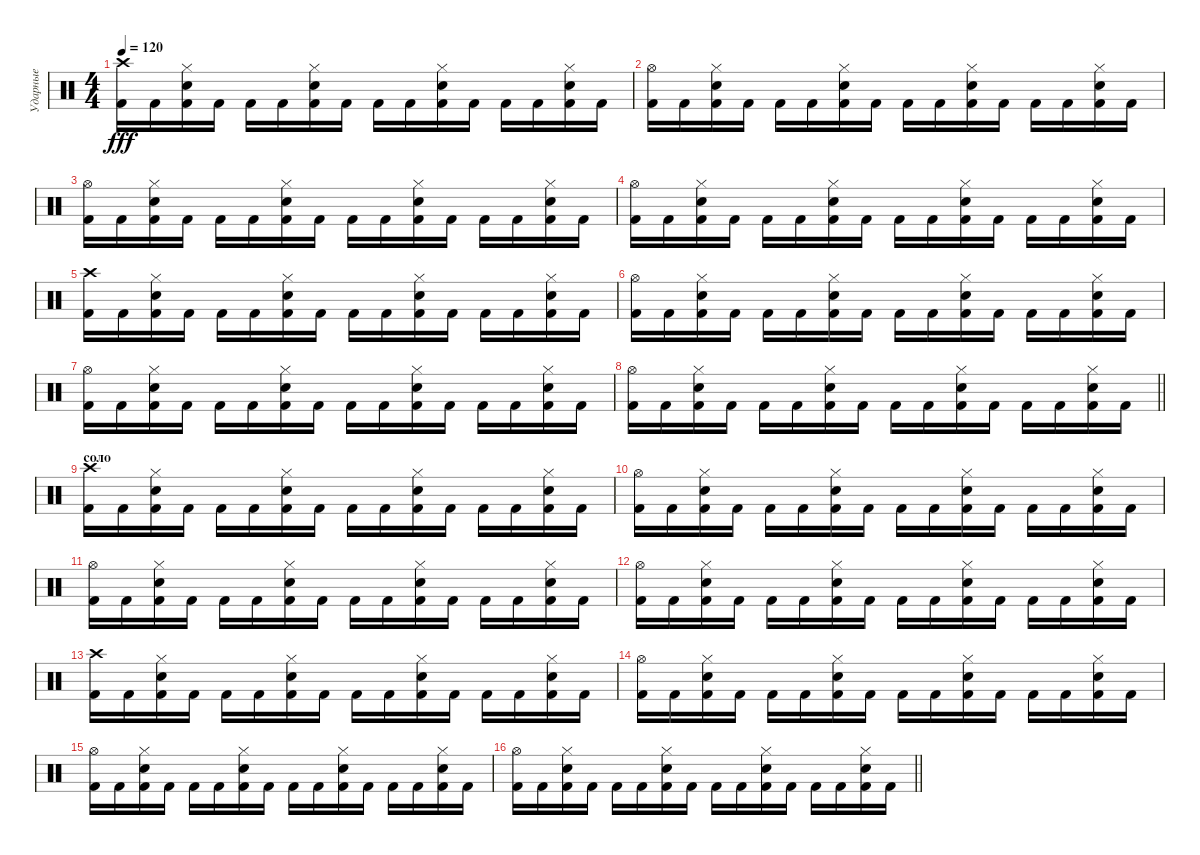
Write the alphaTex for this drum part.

\track ("Ударные" "Ударные") {instrument percussion}
\staff {score}
\articulation defaults
\ts (4 4)
\tempo 120
\clef neutral
\ks c
("Crash high (hit)" "Kick (hit) 2").16{dy fff} "Kick (hit) 2".16 ("Snare (hit) 2" "Hi-Hat (closed)" "Kick (hit) 2").16 "Kick (hit) 2".16 "Kick (hit) 2".16 "Kick (hit) 2".16 ("Snare (hit) 2" "Hi-Hat (closed)" "Kick (hit) 2").16 "Kick (hit) 2".16 "Kick (hit) 2".16 "Kick (hit) 2".16 ("Snare (hit) 2" "Hi-Hat (closed)" "Kick (hit) 2").16 "Kick (hit) 2".16 "Kick (hit) 2".16 "Kick (hit) 2".16 ("Snare (hit) 2" "Hi-Hat (closed)" "Kick (hit) 2").16 "Kick (hit) 2".16 |
("Hi-Hat (open)" "Kick (hit) 2").16 "Kick (hit) 2".16 ("Snare (hit) 2" "Hi-Hat (closed)" "Kick (hit) 2").16 "Kick (hit) 2".16 "Kick (hit) 2".16 "Kick (hit) 2".16 ("Snare (hit) 2" "Hi-Hat (closed)" "Kick (hit) 2").16 "Kick (hit) 2".16 "Kick (hit) 2".16 "Kick (hit) 2".16 ("Snare (hit) 2" "Hi-Hat (closed)" "Kick (hit) 2").16 "Kick (hit) 2".16 "Kick (hit) 2".16 "Kick (hit) 2".16 ("Snare (hit) 2" "Hi-Hat (closed)" "Kick (hit) 2").16 "Kick (hit) 2".16 |
("Hi-Hat (open)" "Kick (hit) 2").16 "Kick (hit) 2".16 ("Snare (hit) 2" "Hi-Hat (closed)" "Kick (hit) 2").16 "Kick (hit) 2".16 "Kick (hit) 2".16 "Kick (hit) 2".16 ("Snare (hit) 2" "Hi-Hat (closed)" "Kick (hit) 2").16 "Kick (hit) 2".16 "Kick (hit) 2".16 "Kick (hit) 2".16 ("Snare (hit) 2" "Hi-Hat (closed)" "Kick (hit) 2").16 "Kick (hit) 2".16 "Kick (hit) 2".16 "Kick (hit) 2".16 ("Snare (hit) 2" "Hi-Hat (closed)" "Kick (hit) 2").16 "Kick (hit) 2".16 |
("Hi-Hat (open)" "Kick (hit) 2").16 "Kick (hit) 2".16 ("Snare (hit) 2" "Hi-Hat (closed)" "Kick (hit) 2").16 "Kick (hit) 2".16 "Kick (hit) 2".16 "Kick (hit) 2".16 ("Snare (hit) 2" "Hi-Hat (closed)" "Kick (hit) 2").16 "Kick (hit) 2".16 "Kick (hit) 2".16 "Kick (hit) 2".16 ("Snare (hit) 2" "Hi-Hat (closed)" "Kick (hit) 2").16 "Kick (hit) 2".16 "Kick (hit) 2".16 "Kick (hit) 2".16 ("Snare (hit) 2" "Hi-Hat (closed)" "Kick (hit) 2").16 "Kick (hit) 2".16 |
("Crash high (hit)" "Kick (hit) 2").16 "Kick (hit) 2".16 ("Snare (hit) 2" "Hi-Hat (closed)" "Kick (hit) 2").16 "Kick (hit) 2".16 "Kick (hit) 2".16 "Kick (hit) 2".16 ("Snare (hit) 2" "Hi-Hat (closed)" "Kick (hit) 2").16 "Kick (hit) 2".16 "Kick (hit) 2".16 "Kick (hit) 2".16 ("Snare (hit) 2" "Hi-Hat (closed)" "Kick (hit) 2").16 "Kick (hit) 2".16 "Kick (hit) 2".16 "Kick (hit) 2".16 ("Snare (hit) 2" "Hi-Hat (closed)" "Kick (hit) 2").16 "Kick (hit) 2".16 |
("Hi-Hat (open)" "Kick (hit) 2").16 "Kick (hit) 2".16 ("Snare (hit) 2" "Hi-Hat (closed)" "Kick (hit) 2").16 "Kick (hit) 2".16 "Kick (hit) 2".16 "Kick (hit) 2".16 ("Snare (hit) 2" "Hi-Hat (closed)" "Kick (hit) 2").16 "Kick (hit) 2".16 "Kick (hit) 2".16 "Kick (hit) 2".16 ("Snare (hit) 2" "Hi-Hat (closed)" "Kick (hit) 2").16 "Kick (hit) 2".16 "Kick (hit) 2".16 "Kick (hit) 2".16 ("Snare (hit) 2" "Hi-Hat (closed)" "Kick (hit) 2").16 "Kick (hit) 2".16 |
("Hi-Hat (open)" "Kick (hit) 2").16 "Kick (hit) 2".16 ("Snare (hit) 2" "Hi-Hat (closed)" "Kick (hit) 2").16 "Kick (hit) 2".16 "Kick (hit) 2".16 "Kick (hit) 2".16 ("Snare (hit) 2" "Hi-Hat (closed)" "Kick (hit) 2").16 "Kick (hit) 2".16 "Kick (hit) 2".16 "Kick (hit) 2".16 ("Snare (hit) 2" "Hi-Hat (closed)" "Kick (hit) 2").16 "Kick (hit) 2".16 "Kick (hit) 2".16 "Kick (hit) 2".16 ("Snare (hit) 2" "Hi-Hat (closed)" "Kick (hit) 2").16 "Kick (hit) 2".16 |
\barLineRight lightlight
("Hi-Hat (open)" "Kick (hit) 2").16 "Kick (hit) 2".16 ("Snare (hit) 2" "Hi-Hat (closed)" "Kick (hit) 2").16 "Kick (hit) 2".16 "Kick (hit) 2".16 "Kick (hit) 2".16 ("Snare (hit) 2" "Hi-Hat (closed)" "Kick (hit) 2").16 "Kick (hit) 2".16 "Kick (hit) 2".16 "Kick (hit) 2".16 ("Snare (hit) 2" "Hi-Hat (closed)" "Kick (hit) 2").16 "Kick (hit) 2".16 "Kick (hit) 2".16 "Kick (hit) 2".16 ("Snare (hit) 2" "Hi-Hat (closed)" "Kick (hit) 2").16 "Kick (hit) 2".16 |
\section ("" "соло")
("Crash high (hit)" "Kick (hit) 2").16 "Kick (hit) 2".16 ("Snare (hit) 2" "Hi-Hat (closed)" "Kick (hit) 2").16 "Kick (hit) 2".16 "Kick (hit) 2".16 "Kick (hit) 2".16 ("Snare (hit) 2" "Hi-Hat (closed)" "Kick (hit) 2").16 "Kick (hit) 2".16 "Kick (hit) 2".16 "Kick (hit) 2".16 ("Snare (hit) 2" "Hi-Hat (closed)" "Kick (hit) 2").16 "Kick (hit) 2".16 "Kick (hit) 2".16 "Kick (hit) 2".16 ("Snare (hit) 2" "Hi-Hat (closed)" "Kick (hit) 2").16 "Kick (hit) 2".16 |
("Hi-Hat (open)" "Kick (hit) 2").16 "Kick (hit) 2".16 ("Snare (hit) 2" "Hi-Hat (closed)" "Kick (hit) 2").16 "Kick (hit) 2".16 "Kick (hit) 2".16 "Kick (hit) 2".16 ("Snare (hit) 2" "Hi-Hat (closed)" "Kick (hit) 2").16 "Kick (hit) 2".16 "Kick (hit) 2".16 "Kick (hit) 2".16 ("Snare (hit) 2" "Hi-Hat (closed)" "Kick (hit) 2").16 "Kick (hit) 2".16 "Kick (hit) 2".16 "Kick (hit) 2".16 ("Snare (hit) 2" "Hi-Hat (closed)" "Kick (hit) 2").16 "Kick (hit) 2".16 |
("Hi-Hat (open)" "Kick (hit) 2").16 "Kick (hit) 2".16 ("Snare (hit) 2" "Hi-Hat (closed)" "Kick (hit) 2").16 "Kick (hit) 2".16 "Kick (hit) 2".16 "Kick (hit) 2".16 ("Snare (hit) 2" "Hi-Hat (closed)" "Kick (hit) 2").16 "Kick (hit) 2".16 "Kick (hit) 2".16 "Kick (hit) 2".16 ("Snare (hit) 2" "Hi-Hat (closed)" "Kick (hit) 2").16 "Kick (hit) 2".16 "Kick (hit) 2".16 "Kick (hit) 2".16 ("Snare (hit) 2" "Hi-Hat (closed)" "Kick (hit) 2").16 "Kick (hit) 2".16 |
("Hi-Hat (open)" "Kick (hit) 2").16 "Kick (hit) 2".16 ("Snare (hit) 2" "Hi-Hat (closed)" "Kick (hit) 2").16 "Kick (hit) 2".16 "Kick (hit) 2".16 "Kick (hit) 2".16 ("Snare (hit) 2" "Hi-Hat (closed)" "Kick (hit) 2").16 "Kick (hit) 2".16 "Kick (hit) 2".16 "Kick (hit) 2".16 ("Snare (hit) 2" "Hi-Hat (closed)" "Kick (hit) 2").16 "Kick (hit) 2".16 "Kick (hit) 2".16 "Kick (hit) 2".16 ("Snare (hit) 2" "Hi-Hat (closed)" "Kick (hit) 2").16 "Kick (hit) 2".16 |
("Crash high (hit)" "Kick (hit) 2").16 "Kick (hit) 2".16 ("Snare (hit) 2" "Hi-Hat (closed)" "Kick (hit) 2").16 "Kick (hit) 2".16 "Kick (hit) 2".16 "Kick (hit) 2".16 ("Snare (hit) 2" "Hi-Hat (closed)" "Kick (hit) 2").16 "Kick (hit) 2".16 "Kick (hit) 2".16 "Kick (hit) 2".16 ("Snare (hit) 2" "Hi-Hat (closed)" "Kick (hit) 2").16 "Kick (hit) 2".16 "Kick (hit) 2".16 "Kick (hit) 2".16 ("Snare (hit) 2" "Hi-Hat (closed)" "Kick (hit) 2").16 "Kick (hit) 2".16 |
("Hi-Hat (open)" "Kick (hit) 2").16 "Kick (hit) 2".16 ("Snare (hit) 2" "Hi-Hat (closed)" "Kick (hit) 2").16 "Kick (hit) 2".16 "Kick (hit) 2".16 "Kick (hit) 2".16 ("Snare (hit) 2" "Hi-Hat (closed)" "Kick (hit) 2").16 "Kick (hit) 2".16 "Kick (hit) 2".16 "Kick (hit) 2".16 ("Snare (hit) 2" "Hi-Hat (closed)" "Kick (hit) 2").16 "Kick (hit) 2".16 "Kick (hit) 2".16 "Kick (hit) 2".16 ("Snare (hit) 2" "Hi-Hat (closed)" "Kick (hit) 2").16 "Kick (hit) 2".16 |
("Hi-Hat (open)" "Kick (hit) 2").16 "Kick (hit) 2".16 ("Snare (hit) 2" "Hi-Hat (closed)" "Kick (hit) 2").16 "Kick (hit) 2".16 "Kick (hit) 2".16 "Kick (hit) 2".16 ("Snare (hit) 2" "Hi-Hat (closed)" "Kick (hit) 2").16 "Kick (hit) 2".16 "Kick (hit) 2".16 "Kick (hit) 2".16 ("Snare (hit) 2" "Hi-Hat (closed)" "Kick (hit) 2").16 "Kick (hit) 2".16 "Kick (hit) 2".16 "Kick (hit) 2".16 ("Snare (hit) 2" "Hi-Hat (closed)" "Kick (hit) 2").16 "Kick (hit) 2".16 |
\barLineRight lightlight
("Hi-Hat (open)" "Kick (hit) 2").16 "Kick (hit) 2".16 ("Snare (hit) 2" "Hi-Hat (closed)" "Kick (hit) 2").16 "Kick (hit) 2".16 "Kick (hit) 2".16 "Kick (hit) 2".16 ("Snare (hit) 2" "Hi-Hat (closed)" "Kick (hit) 2").16 "Kick (hit) 2".16 "Kick (hit) 2".16 "Kick (hit) 2".16 ("Snare (hit) 2" "Hi-Hat (closed)" "Kick (hit) 2").16 "Kick (hit) 2".16 "Kick (hit) 2".16 "Kick (hit) 2".16 ("Snare (hit) 2" "Hi-Hat (closed)" "Kick (hit) 2").16 "Kick (hit) 2".16
